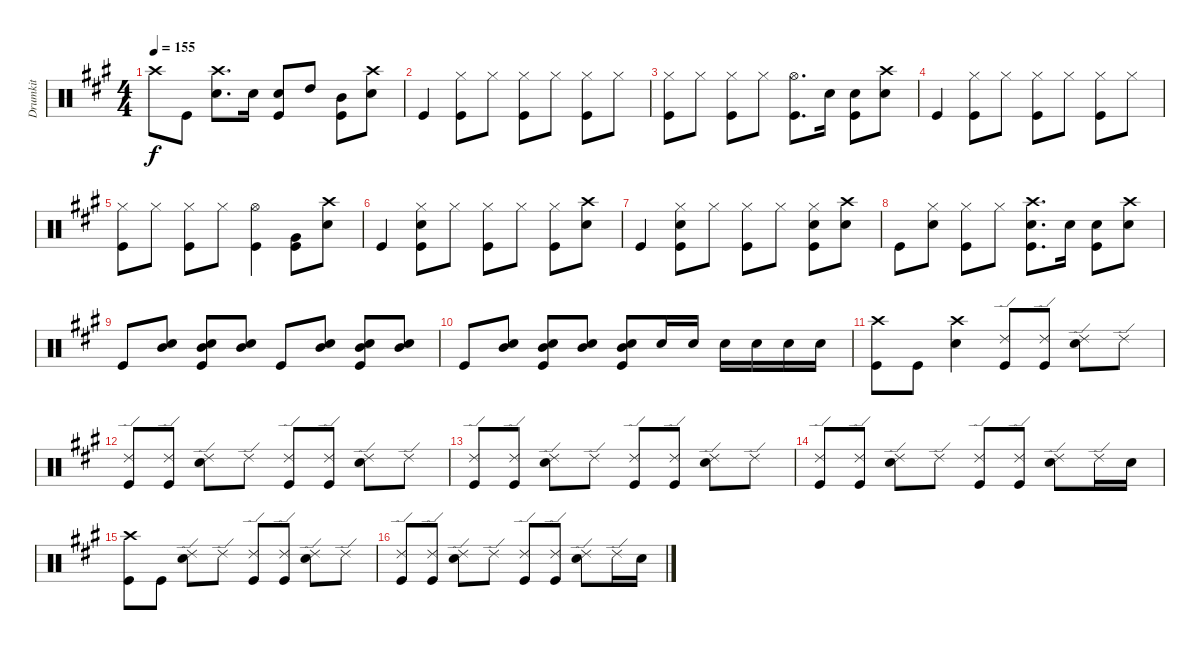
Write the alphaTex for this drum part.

\track ("Drumkit" "Drumkit") {instrument percussion}
\staff {score}
\articulation defaults
\ts (4 4)
\tempo 155
\clef neutral
\ks a "Crash high (hit)"{t}.8{dy f} "Kick (hit)".8
("Crash high (hit)" "Snare (hit) 2").8{d} "Snare (hit) 2".16 ("Snare (hit) 2" "Kick (hit)").8 "High Tom (hit)".8 ("Mid Tom (hit)" "Kick (hit)").8 ("Crash high (hit)" "Snare (hit) 2").8 |
"Kick (hit)".4 ("Hi-Hat (closed)" "Kick (hit)").8 "Hi-Hat (closed)".8 ("Hi-Hat (closed)" "Kick (hit)").8 "Hi-Hat (closed)".8 ("Hi-Hat (closed)" "Kick (hit)").8 "Hi-Hat (closed)".8 |
("Hi-Hat (closed)" "Kick (hit)").8 "Hi-Hat (closed)".8 ("Hi-Hat (closed)" "Kick (hit)").8 "Hi-Hat (closed)".8 ("Hi-Hat (open)" "Kick (hit)").8{d} "Snare (hit) 2".16 ("Snare (hit) 2" "Kick (hit)").8 ("Crash high (hit)" "Snare (hit) 2").8 |
"Kick (hit)".4 ("Hi-Hat (closed)" "Kick (hit)").8 "Hi-Hat (closed)".8 ("Hi-Hat (closed)" "Kick (hit)").8 "Hi-Hat (closed)".8 ("Hi-Hat (closed)" "Kick (hit)").8 "Hi-Hat (closed)".8 |
("Hi-Hat (closed)" "Kick (hit)").8 "Hi-Hat (closed)".8 ("Hi-Hat (closed)" "Kick (hit)").8 "Hi-Hat (closed)".8 ("Hi-Hat (open)" "Kick (hit)").4 ("Very Low Tom (hit)" "Kick (hit)").8 ("Crash high (hit)" "Snare (hit) 2").8 |
"Kick (hit)".4 ("Hi-Hat (closed)" "Snare (hit) 2" "Kick (hit)").8 "Hi-Hat (closed)".8 ("Hi-Hat (closed)" "Kick (hit)").8 "Hi-Hat (closed)".8 ("Hi-Hat (closed)" "Kick (hit)").8 ("Crash high (hit)" "Snare (hit) 2").8 |
"Kick (hit)".4 ("Hi-Hat (closed)" "Snare (hit) 2" "Kick (hit)").8 "Hi-Hat (closed)".8 ("Hi-Hat (closed)" "Kick (hit)").8 "Hi-Hat (closed)".8 ("Hi-Hat (closed)" "Snare (hit) 2" "Kick (hit)").8 ("Crash high (hit)" "Snare (hit) 2").8 |
"Kick (hit)".8 ("Hi-Hat (closed)" "Snare (hit) 2").8 ("Hi-Hat (closed)" "Kick (hit)").8 "Hi-Hat (closed)".8 ("Crash high (hit)" "Snare (hit) 2" "Kick (hit)").8{d} "Snare (hit) 2".16 ("Snare (hit) 2" "Kick (hit)").8 ("Crash high (hit)" "Snare (hit) 2").8 |
"Kick (hit)".8 ("Mid Tom (hit)" "Snare (hit) 2").8 ("Mid Tom (hit)" "Snare (hit) 2" "Kick (hit)").8 ("Mid Tom (hit)" "Snare (hit) 2").8 "Kick (hit)".8 ("Mid Tom (hit)" "Snare (hit) 2").8 ("Mid Tom (hit)" "Snare (hit) 2" "Kick (hit)").8 ("Mid Tom (hit)" "Snare (hit) 2").8 |
"Kick (hit)".8 ("Mid Tom (hit)" "Snare (hit) 2").8 ("Mid Tom (hit)" "Snare (hit) 2" "Kick (hit)").8 ("Mid Tom (hit)" "Snare (hit) 2").8 ("Mid Tom (hit)" "Snare (hit) 2" "Kick (hit)").8 "Snare (hit) 2".16 "Snare (hit) 2".16 "Snare (hit) 2".16 "Snare (hit) 2".16 "Snare (hit) 2".16 "Snare (hit) 2".16 |
("Crash high (hit)" "Kick (hit)").8 "Kick (hit)".8 ("Crash high (hit)" "Snare (hit) 2").4 ("Ride (edge) 2" "Kick (hit)").8 ("Ride (edge) 2" "Kick (hit)").8 ("Ride (edge) 2" "Snare (hit) 2").8 "Ride (edge) 2".8 |
("Ride (edge) 2" "Kick (hit)").8 ("Ride (edge) 2" "Kick (hit)").8 ("Ride (edge) 2" "Snare (hit) 2").8 "Ride (edge) 2".8 ("Ride (edge) 2" "Kick (hit)").8 ("Ride (edge) 2" "Kick (hit)").8 ("Ride (edge) 2" "Snare (hit) 2").8 "Ride (edge) 2".8 |
("Ride (edge) 2" "Kick (hit)").8 ("Ride (edge) 2" "Kick (hit)").8 ("Ride (edge) 2" "Snare (hit) 2").8 "Ride (edge) 2".8 ("Ride (edge) 2" "Kick (hit)").8 ("Ride (edge) 2" "Kick (hit)").8 ("Ride (edge) 2" "Snare (hit) 2").8 "Ride (edge) 2".8 |
("Ride (edge) 2" "Kick (hit)").8 ("Ride (edge) 2" "Kick (hit)").8 ("Ride (edge) 2" "Snare (hit) 2").8 "Ride (edge) 2".8 ("Ride (edge) 2" "Kick (hit)").8 ("Ride (edge) 2" "Kick (hit)").8 ("Ride (edge) 2" "Snare (hit) 2").8 "Ride (edge) 2".16 "Snare (hit) 2".16 |
("Crash high (hit)" "Kick (hit)").8 "Kick (hit)".8 ("Ride (edge) 2" "Snare (hit) 2").8 "Ride (edge) 2".8 ("Ride (edge) 2" "Kick (hit)").8 ("Ride (edge) 2" "Kick (hit)").8 ("Ride (edge) 2" "Snare (hit) 2").8 "Ride (edge) 2".8 |
("Ride (edge) 2" "Kick (hit)").8 ("Ride (edge) 2" "Kick (hit)").8 ("Ride (edge) 2" "Snare (hit) 2").8 "Ride (edge) 2".8 ("Ride (edge) 2" "Kick (hit)").8 ("Ride (edge) 2" "Kick (hit)").8 ("Ride (edge) 2" "Snare (hit) 2").8 "Ride (edge) 2".16 "Snare (hit) 2".16
